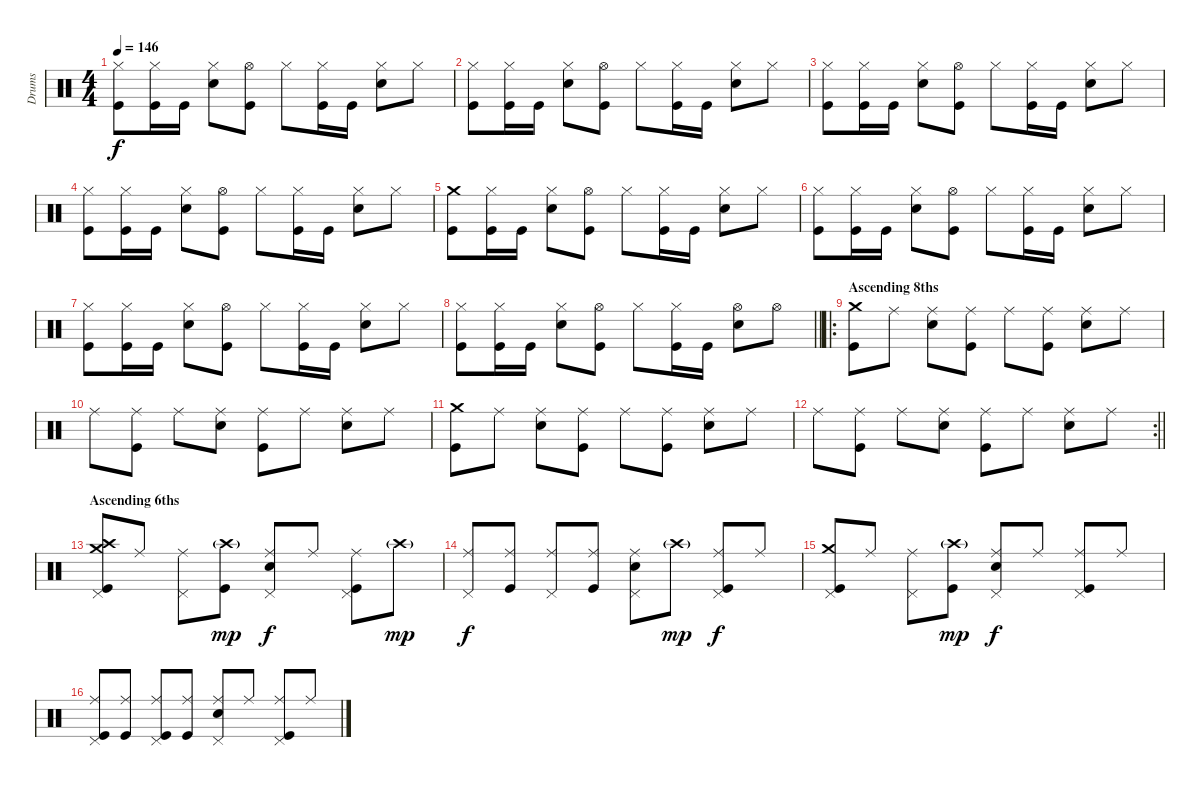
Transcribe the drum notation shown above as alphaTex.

\track ("Drums" "Drums") {instrument percussion}
\staff {score}
\articulation defaults
\ts (4 4)
\tempo 146
\clef neutral
\ks c
("Hi-Hat (closed)" "Kick (hit)").8{dy f} ("Hi-Hat (closed)" "Kick (hit)").16 "Kick (hit)".16 ("Hi-Hat (closed)" "Electric Snare (hit)").8 ("Hi-Hat (open)" "Kick (hit)").8 "Hi-Hat (closed)".8 ("Hi-Hat (closed)" "Kick (hit)").16 "Kick (hit)".16 ("Hi-Hat (closed)" "Electric Snare (hit)").8 "Hi-Hat (closed)".8 |
("Hi-Hat (closed)" "Kick (hit)").8 ("Hi-Hat (closed)" "Kick (hit)").16 "Kick (hit)".16 ("Hi-Hat (closed)" "Electric Snare (hit)").8 ("Hi-Hat (open)" "Kick (hit)").8 "Hi-Hat (closed)".8 ("Hi-Hat (closed)" "Kick (hit)").16 "Kick (hit)".16 ("Hi-Hat (closed)" "Electric Snare (hit)").8 "Hi-Hat (closed)".8 |
("Hi-Hat (closed)" "Kick (hit)").8 ("Hi-Hat (closed)" "Kick (hit)").16 "Kick (hit)".16 ("Hi-Hat (closed)" "Electric Snare (hit)").8 ("Hi-Hat (open)" "Kick (hit)").8 "Hi-Hat (closed)".8 ("Hi-Hat (closed)" "Kick (hit)").16 "Kick (hit)".16 ("Hi-Hat (closed)" "Electric Snare (hit)").8 "Hi-Hat (closed)".8 |
("Hi-Hat (closed)" "Kick (hit)").8 ("Hi-Hat (closed)" "Kick (hit)").16 "Kick (hit)".16 ("Hi-Hat (closed)" "Electric Snare (hit)").8 ("Hi-Hat (open)" "Kick (hit)").8 "Hi-Hat (closed)".8 ("Hi-Hat (closed)" "Kick (hit)").16 "Kick (hit)".16 ("Hi-Hat (closed)" "Electric Snare (hit)").8 "Hi-Hat (closed)".8 |
("Crash medium (hit)" "Kick (hit)").8 ("Hi-Hat (closed)" "Kick (hit)").16 "Kick (hit)".16 ("Hi-Hat (closed)" "Electric Snare (hit)").8 ("Hi-Hat (open)" "Kick (hit)").8 "Hi-Hat (closed)".8 ("Hi-Hat (closed)" "Kick (hit)").16 "Kick (hit)".16 ("Hi-Hat (closed)" "Electric Snare (hit)").8 "Hi-Hat (closed)".8 |
("Hi-Hat (closed)" "Kick (hit)").8 ("Hi-Hat (closed)" "Kick (hit)").16 "Kick (hit)".16 ("Hi-Hat (closed)" "Electric Snare (hit)").8 ("Hi-Hat (open)" "Kick (hit)").8 "Hi-Hat (closed)".8 ("Hi-Hat (closed)" "Kick (hit)").16 "Kick (hit)".16 ("Hi-Hat (closed)" "Electric Snare (hit)").8 "Hi-Hat (closed)".8 |
("Hi-Hat (closed)" "Kick (hit)").8 ("Hi-Hat (closed)" "Kick (hit)").16 "Kick (hit)".16 ("Hi-Hat (closed)" "Electric Snare (hit)").8 ("Hi-Hat (open)" "Kick (hit)").8 "Hi-Hat (closed)".8 ("Hi-Hat (closed)" "Kick (hit)").16 "Kick (hit)".16 ("Hi-Hat (closed)" "Electric Snare (hit)").8 "Hi-Hat (closed)".8 |
\barLineRight lightlight
("Hi-Hat (closed)" "Kick (hit)").8 ("Hi-Hat (closed)" "Kick (hit)").16 "Kick (hit)".16 ("Hi-Hat (closed)" "Electric Snare (hit)").8 ("Hi-Hat (open)" "Kick (hit)").8 "Hi-Hat (closed)".8 ("Hi-Hat (closed)" "Kick (hit)").16 "Kick (hit)".16 ("Hi-Hat (open)" "Electric Snare (hit)").8 "Hi-Hat (open)".8 |
\ro
\section ("" "Ascending 8ths")
("Crash medium (hit)" "Kick (hit)").8 "Ride (middle)".8 ("Ride (middle)" "Electric Snare (hit)").8 ("Ride (middle)" "Kick (hit)").8 "Ride (middle)".8 ("Ride (middle)" "Kick (hit)").8 ("Ride (middle)" "Electric Snare (hit)").8 "Ride (middle)".8 |
"Ride (middle)".8 ("Ride (middle)" "Kick (hit)").8 "Ride (middle)".8 ("Ride (middle)" "Electric Snare (hit)").8 ("Ride (middle)" "Kick (hit)").8 "Ride (middle)".8 ("Ride (middle)" "Electric Snare (hit)").8 "Ride (middle)".8 |
("Crash medium (hit)" "Kick (hit)").8 "Ride (middle)".8 ("Ride (middle)" "Electric Snare (hit)").8 ("Ride (middle)" "Kick (hit)").8 "Ride (middle)".8 ("Ride (middle)" "Kick (hit)").8 ("Ride (middle)" "Electric Snare (hit)").8 "Ride (middle)".8 |
\rc 2
\barLineRight lightlight "Ride (middle)".8
("Ride (middle)" "Kick (hit)").8 "Ride (middle)".8 ("Ride (middle)" "Electric Snare (hit)").8 ("Ride (middle)" "Kick (hit)").8 "Ride (middle)".8 ("Ride (middle)" "Electric Snare (hit)").8 "Ride (middle)".8 |
\section ("" "Ascending 6ths")
("Crash medium (hit)" "Crash high (hit)" "Pedal Hi-Hat (hit)" "Kick (hit)").8 "Ride (middle)".8 ("Ride (middle)" "Pedal Hi-Hat (hit)").8 ("Crash high (hit)"{g} "Kick (hit)").8{dy mp} ("Ride (middle)" "Pedal Hi-Hat (hit)" "Electric Snare (hit)").8{dy f} "Ride (middle)".8 ("Ride (middle)" "Pedal Hi-Hat (hit)" "Kick (hit)").8 "Crash high (hit)"{g}.8{dy mp} |
("Ride (middle)" "Pedal Hi-Hat (hit)").8{dy f} ("Ride (middle)" "Kick (hit)").8 ("Ride (middle)" "Pedal Hi-Hat (hit)").8 ("Ride (middle)" "Kick (hit)").8 ("Ride (middle)" "Pedal Hi-Hat (hit)" "Electric Snare (hit)").8 "Crash high (hit)"{g}.8{dy mp} ("Ride (middle)" "Pedal Hi-Hat (hit)" "Kick (hit)").8{dy f} "Ride (middle)".8 |
("Crash medium (hit)" "Pedal Hi-Hat (hit)" "Kick (hit)").8 "Ride (middle)".8 ("Ride (middle)" "Pedal Hi-Hat (hit)").8 ("Crash high (hit)"{g} "Kick (hit)").8{dy mp} ("Ride (middle)" "Pedal Hi-Hat (hit)" "Electric Snare (hit)").8{dy f} "Ride (middle)".8 ("Ride (middle)" "Pedal Hi-Hat (hit)" "Kick (hit)").8 "Ride (middle)".8 |
("Ride (middle)" "Pedal Hi-Hat (hit)" "Kick (hit)").8 ("Ride (middle)" "Kick (hit)").8 ("Ride (middle)" "Pedal Hi-Hat (hit)" "Kick (hit)").8 ("Ride (middle)" "Kick (hit)").8 ("Ride (middle)" "Pedal Hi-Hat (hit)" "Electric Snare (hit)").8 "Ride (middle)".8 ("Ride (middle)" "Pedal Hi-Hat (hit)" "Kick (hit)").8 "Ride (middle)".8
